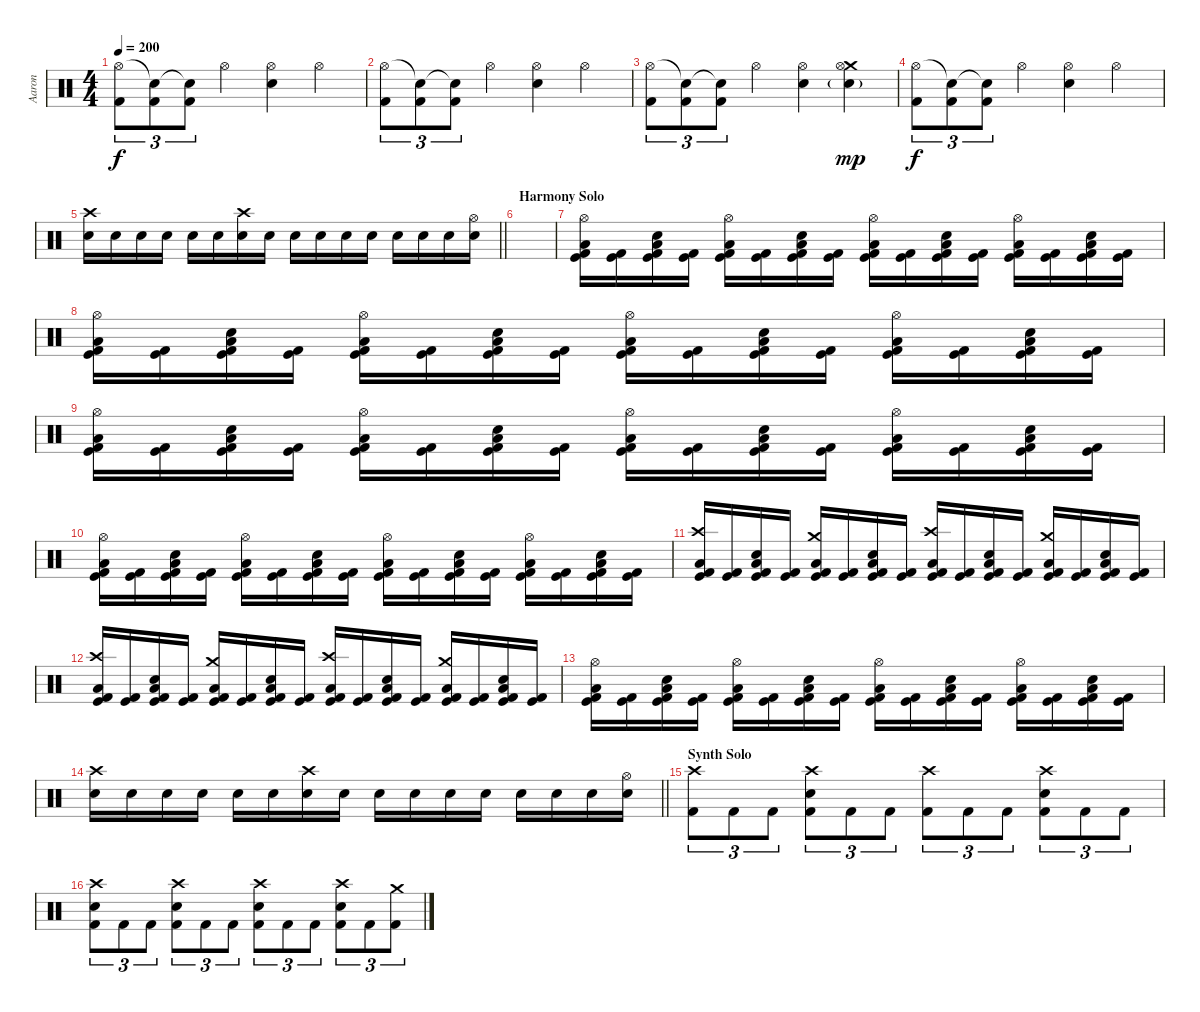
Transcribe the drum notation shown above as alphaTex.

\track ("Aaron" "Aaron") {instrument percussion}
\staff {score}
\articulation defaults
\ts (4 4)
\tempo 200
\clef neutral
\ks c
("Hi-Hat (open)" "Kick (hit) 2").8{tu (3 2) dy f} ("Snare (hit)"{t} "Kick (hit) 2").8{tu (3 2)} ("Snare (hit)"{t} "Kick (hit) 2").8{tu (3 2)} "Hi-Hat (open)".4 ("Hi-Hat (open)" "Snare (hit) 2").4 "Hi-Hat (open)".4 |
("Hi-Hat (open)" "Kick (hit) 2").8{tu (3 2)} ("Snare (hit)"{t} "Kick (hit) 2").8{tu (3 2)} ("Snare (hit)"{t} "Kick (hit) 2").8{tu (3 2)} "Hi-Hat (open)".4 ("Hi-Hat (open)" "Snare (hit) 2").4 "Hi-Hat (open)".4 |
("Hi-Hat (open)" "Kick (hit) 2").8{tu (3 2)} ("Snare (hit)"{t} "Kick (hit) 2").8{tu (3 2)} ("Snare (hit)"{t} "Kick (hit) 2").8{tu (3 2)} "Hi-Hat (open)".4 ("Hi-Hat (open)" "Snare (hit) 2").4 ("Crash medium (hit)" "Snare (hit) 2"{g} "Hi-Hat (open)").4{dy mp} |
("Hi-Hat (open)" "Kick (hit) 2").8{tu (3 2) dy f} ("Snare (hit)"{t} "Kick (hit) 2").8{tu (3 2)} ("Snare (hit)"{t} "Kick (hit) 2").8{tu (3 2)} "Hi-Hat (open)".4 ("Hi-Hat (open)" "Snare (hit) 2").4 "Hi-Hat (open)".4 |
\barLineRight lightlight
("Crash high (hit)" "Snare (hit) 2").16 "Snare (hit) 2".16 "Snare (hit) 2".16 "Snare (hit) 2".16 "Snare (hit) 2".16 "Snare (hit) 2".16 ("Crash high (hit)" "Snare (hit) 2").16 "Snare (hit) 2".16 "Snare (hit) 2".16 "Snare (hit) 2".16 "Snare (hit) 2".16 "Snare (hit) 2".16 "Snare (hit) 2".16 "Snare (hit) 2".16 "Snare (hit) 2".16 ("Hi-Hat (open)" "Snare (hit) 2").16 |
\section ("" "Harmony Solo")
|
("Hi-Hat (open)" "Low Floor Tom (hit)" "Kick (hit) 2" "Kick (hit)").16 ("Kick (hit) 2" "Kick (hit)").16 ("Snare (hit) 2" "Low Floor Tom (hit)" "Kick (hit) 2" "Kick (hit)").16 ("Kick (hit) 2" "Kick (hit)").16 ("Hi-Hat (open)" "Low Floor Tom (hit)" "Kick (hit) 2" "Kick (hit)").16 ("Kick (hit) 2" "Kick (hit)").16 ("Snare (hit) 2" "Low Floor Tom (hit)" "Kick (hit) 2" "Kick (hit)").16 ("Kick (hit) 2" "Kick (hit)").16 ("Hi-Hat (open)" "Low Floor Tom (hit)" "Kick (hit) 2" "Kick (hit)").16 ("Kick (hit) 2" "Kick (hit)").16 ("Snare (hit) 2" "Low Floor Tom (hit)" "Kick (hit) 2" "Kick (hit)").16 ("Kick (hit) 2" "Kick (hit)").16 ("Hi-Hat (open)" "Low Floor Tom (hit)" "Kick (hit) 2" "Kick (hit)").16 ("Kick (hit) 2" "Kick (hit)").16 ("Snare (hit) 2" "Low Floor Tom (hit)" "Kick (hit) 2" "Kick (hit)").16 ("Kick (hit) 2" "Kick (hit)").16 |
("Hi-Hat (open)" "Low Floor Tom (hit)" "Kick (hit) 2" "Kick (hit)").16 ("Kick (hit) 2" "Kick (hit)").16 ("Snare (hit) 2" "Low Floor Tom (hit)" "Kick (hit) 2" "Kick (hit)").16 ("Kick (hit) 2" "Kick (hit)").16 ("Hi-Hat (open)" "Low Floor Tom (hit)" "Kick (hit) 2" "Kick (hit)").16 ("Kick (hit) 2" "Kick (hit)").16 ("Snare (hit) 2" "Low Floor Tom (hit)" "Kick (hit) 2" "Kick (hit)").16 ("Kick (hit) 2" "Kick (hit)").16 ("Hi-Hat (open)" "Low Floor Tom (hit)" "Kick (hit) 2" "Kick (hit)").16 ("Kick (hit) 2" "Kick (hit)").16 ("Snare (hit) 2" "Low Floor Tom (hit)" "Kick (hit) 2" "Kick (hit)").16 ("Kick (hit) 2" "Kick (hit)").16 ("Hi-Hat (open)" "Low Floor Tom (hit)" "Kick (hit) 2" "Kick (hit)").16 ("Kick (hit) 2" "Kick (hit)").16 ("Snare (hit) 2" "Low Floor Tom (hit)" "Kick (hit) 2" "Kick (hit)").16 ("Kick (hit) 2" "Kick (hit)").16 |
("Hi-Hat (open)" "Low Floor Tom (hit)" "Kick (hit) 2" "Kick (hit)").16 ("Kick (hit) 2" "Kick (hit)").16 ("Snare (hit) 2" "Low Floor Tom (hit)" "Kick (hit) 2" "Kick (hit)").16 ("Kick (hit) 2" "Kick (hit)").16 ("Hi-Hat (open)" "Low Floor Tom (hit)" "Kick (hit) 2" "Kick (hit)").16 ("Kick (hit) 2" "Kick (hit)").16 ("Snare (hit) 2" "Low Floor Tom (hit)" "Kick (hit) 2" "Kick (hit)").16 ("Kick (hit) 2" "Kick (hit)").16 ("Hi-Hat (open)" "Low Floor Tom (hit)" "Kick (hit) 2" "Kick (hit)").16 ("Kick (hit) 2" "Kick (hit)").16 ("Snare (hit) 2" "Low Floor Tom (hit)" "Kick (hit) 2" "Kick (hit)").16 ("Kick (hit) 2" "Kick (hit)").16 ("Hi-Hat (open)" "Low Floor Tom (hit)" "Kick (hit) 2" "Kick (hit)").16 ("Kick (hit) 2" "Kick (hit)").16 ("Snare (hit) 2" "Low Floor Tom (hit)" "Kick (hit) 2" "Kick (hit)").16 ("Kick (hit) 2" "Kick (hit)").16 |
("Hi-Hat (open)" "Low Floor Tom (hit)" "Kick (hit) 2" "Kick (hit)").16 ("Kick (hit) 2" "Kick (hit)").16 ("Snare (hit) 2" "Low Floor Tom (hit)" "Kick (hit) 2" "Kick (hit)").16 ("Kick (hit) 2" "Kick (hit)").16 ("Hi-Hat (open)" "Low Floor Tom (hit)" "Kick (hit) 2" "Kick (hit)").16 ("Kick (hit) 2" "Kick (hit)").16 ("Snare (hit) 2" "Low Floor Tom (hit)" "Kick (hit) 2" "Kick (hit)").16 ("Kick (hit) 2" "Kick (hit)").16 ("Hi-Hat (open)" "Low Floor Tom (hit)" "Kick (hit) 2" "Kick (hit)").16 ("Kick (hit) 2" "Kick (hit)").16 ("Snare (hit) 2" "Low Floor Tom (hit)" "Kick (hit) 2" "Kick (hit)").16 ("Kick (hit) 2" "Kick (hit)").16 ("Hi-Hat (open)" "Low Floor Tom (hit)" "Kick (hit) 2" "Kick (hit)").16 ("Kick (hit) 2" "Kick (hit)").16 ("Snare (hit) 2" "Low Floor Tom (hit)" "Kick (hit) 2" "Kick (hit)").16 ("Kick (hit) 2" "Kick (hit)").16 |
("Crash high (hit)" "Low Floor Tom (hit)" "Kick (hit) 2" "Kick (hit)").16 ("Kick (hit) 2" "Kick (hit)").16 ("Snare (hit) 2" "Low Floor Tom (hit)" "Kick (hit) 2" "Kick (hit)").16 ("Kick (hit) 2" "Kick (hit)").16 ("Crash medium (hit)" "Low Floor Tom (hit)" "Kick (hit) 2" "Kick (hit)").16 ("Kick (hit) 2" "Kick (hit)").16 ("Snare (hit) 2" "Low Floor Tom (hit)" "Kick (hit) 2" "Kick (hit)").16 ("Kick (hit) 2" "Kick (hit)").16 ("Crash high (hit)" "Low Floor Tom (hit)" "Kick (hit) 2" "Kick (hit)").16 ("Kick (hit) 2" "Kick (hit)").16 ("Snare (hit) 2" "Low Floor Tom (hit)" "Kick (hit) 2" "Kick (hit)").16 ("Kick (hit) 2" "Kick (hit)").16 ("Crash medium (hit)" "Low Floor Tom (hit)" "Kick (hit) 2" "Kick (hit)").16 ("Kick (hit) 2" "Kick (hit)").16 ("Snare (hit) 2" "Low Floor Tom (hit)" "Kick (hit) 2" "Kick (hit)").16 ("Kick (hit) 2" "Kick (hit)").16 |
("Crash high (hit)" "Low Floor Tom (hit)" "Kick (hit) 2" "Kick (hit)").16 ("Kick (hit) 2" "Kick (hit)").16 ("Snare (hit) 2" "Low Floor Tom (hit)" "Kick (hit) 2" "Kick (hit)").16 ("Kick (hit) 2" "Kick (hit)").16 ("Crash medium (hit)" "Low Floor Tom (hit)" "Kick (hit) 2" "Kick (hit)").16 ("Kick (hit) 2" "Kick (hit)").16 ("Snare (hit) 2" "Low Floor Tom (hit)" "Kick (hit) 2" "Kick (hit)").16 ("Kick (hit) 2" "Kick (hit)").16 ("Crash high (hit)" "Low Floor Tom (hit)" "Kick (hit) 2" "Kick (hit)").16 ("Kick (hit) 2" "Kick (hit)").16 ("Snare (hit) 2" "Low Floor Tom (hit)" "Kick (hit) 2" "Kick (hit)").16 ("Kick (hit) 2" "Kick (hit)").16 ("Crash medium (hit)" "Low Floor Tom (hit)" "Kick (hit) 2" "Kick (hit)").16 ("Kick (hit) 2" "Kick (hit)").16 ("Snare (hit) 2" "Low Floor Tom (hit)" "Kick (hit) 2" "Kick (hit)").16 ("Kick (hit) 2" "Kick (hit)").16 |
("Hi-Hat (open)" "Low Floor Tom (hit)" "Kick (hit) 2" "Kick (hit)").16 ("Kick (hit) 2" "Kick (hit)").16 ("Snare (hit) 2" "Low Floor Tom (hit)" "Kick (hit) 2" "Kick (hit)").16 ("Kick (hit) 2" "Kick (hit)").16 ("Hi-Hat (open)" "Low Floor Tom (hit)" "Kick (hit) 2" "Kick (hit)").16 ("Kick (hit) 2" "Kick (hit)").16 ("Snare (hit) 2" "Low Floor Tom (hit)" "Kick (hit) 2" "Kick (hit)").16 ("Kick (hit) 2" "Kick (hit)").16 ("Hi-Hat (open)" "Low Floor Tom (hit)" "Kick (hit) 2" "Kick (hit)").16 ("Kick (hit) 2" "Kick (hit)").16 ("Snare (hit) 2" "Low Floor Tom (hit)" "Kick (hit) 2" "Kick (hit)").16 ("Kick (hit) 2" "Kick (hit)").16 ("Hi-Hat (open)" "Low Floor Tom (hit)" "Kick (hit) 2" "Kick (hit)").16 ("Kick (hit) 2" "Kick (hit)").16 ("Snare (hit) 2" "Low Floor Tom (hit)" "Kick (hit) 2" "Kick (hit)").16 ("Kick (hit) 2" "Kick (hit)").16 |
\barLineRight lightlight
("Crash high (hit)" "Snare (hit) 2").16 "Snare (hit) 2".16 "Snare (hit) 2".16 "Snare (hit) 2".16 "Snare (hit) 2".16 "Snare (hit) 2".16 ("Crash high (hit)" "Snare (hit) 2").16 "Snare (hit) 2".16 "Snare (hit) 2".16 "Snare (hit) 2".16 "Snare (hit) 2".16 "Snare (hit) 2".16 "Snare (hit) 2".16 "Snare (hit) 2".16 "Snare (hit) 2".16 ("Hi-Hat (open)" "Snare (hit) 2").16 |
\section ("" "Synth Solo")
("Crash high (hit)" "Kick (hit) 2").8{tu (3 2)} "Kick (hit) 2".8{tu (3 2)} "Kick (hit) 2".8{tu (3 2)} ("Crash high (hit)" "Snare (hit) 2" "Kick (hit) 2").8{tu (3 2)} "Kick (hit) 2".8{tu (3 2)} "Kick (hit) 2".8{tu (3 2)} ("Crash high (hit)" "Kick (hit) 2").8{tu (3 2)} "Kick (hit) 2".8{tu (3 2)} "Kick (hit) 2".8{tu (3 2)} ("Crash high (hit)" "Snare (hit) 2" "Kick (hit) 2").8{tu (3 2)} "Kick (hit) 2".8{tu (3 2)} "Kick (hit) 2".8{tu (3 2)} |
("Crash high (hit)" "Snare (hit) 2" "Kick (hit) 2").8{tu (3 2)} "Kick (hit) 2".8{tu (3 2)} "Kick (hit) 2".8{tu (3 2)} ("Crash high (hit)" "Snare (hit) 2" "Kick (hit) 2").8{tu (3 2)} "Kick (hit) 2".8{tu (3 2)} "Kick (hit) 2".8{tu (3 2)} ("Crash high (hit)" "Snare (hit) 2" "Kick (hit) 2").8{tu (3 2)} "Kick (hit) 2".8{tu (3 2)} "Kick (hit) 2".8{tu (3 2)} ("Crash high (hit)" "Snare (hit) 2" "Kick (hit) 2").8{tu (3 2)} "Kick (hit) 2".8{tu (3 2)} ("Crash medium (hit)" "Kick (hit) 2").8{tu (3 2)}
